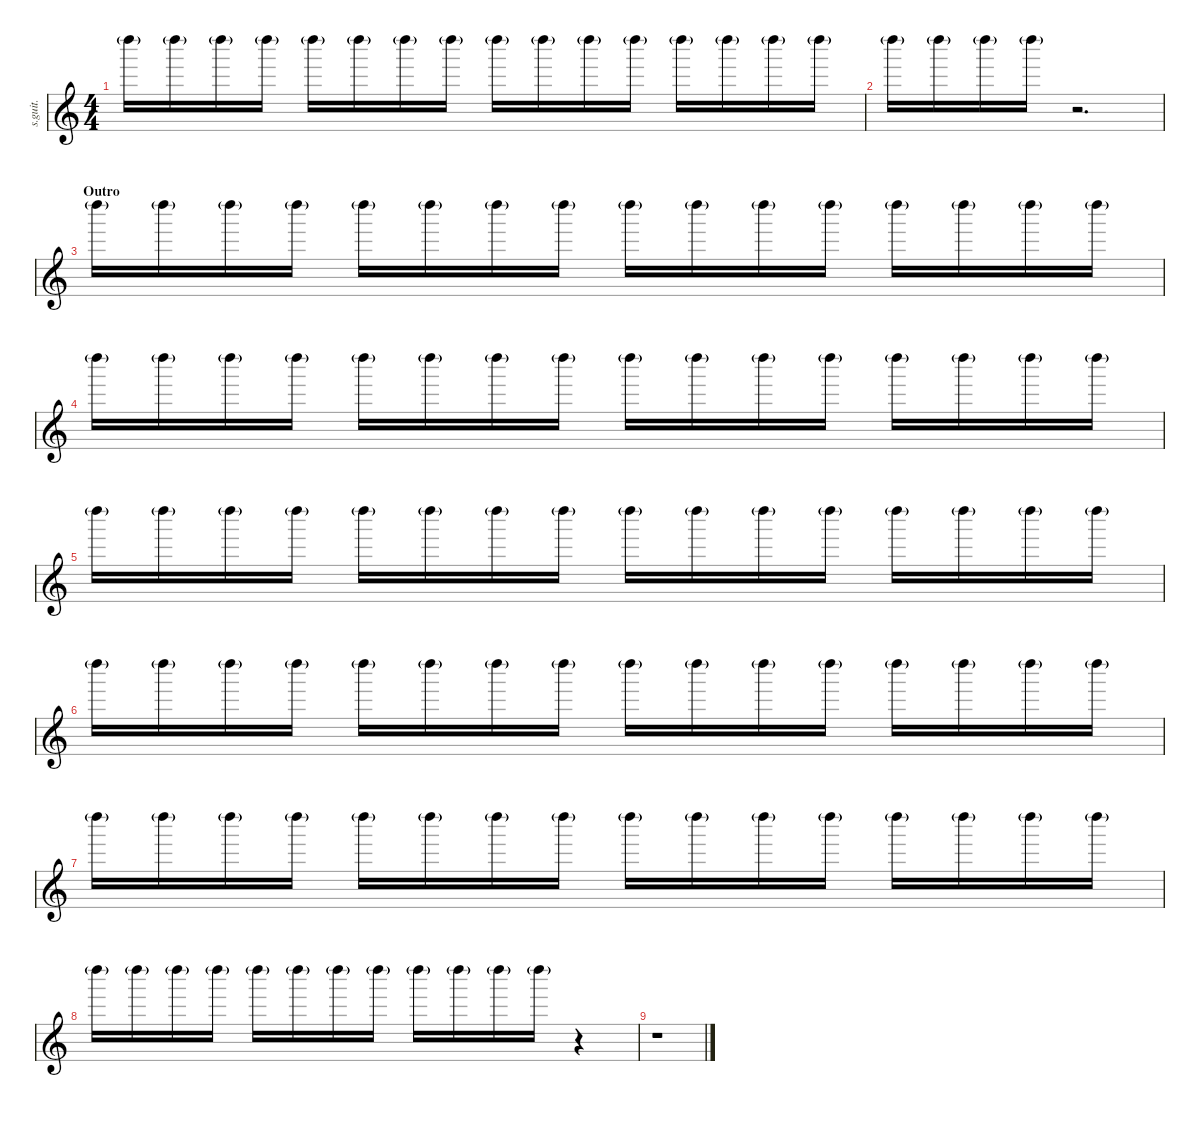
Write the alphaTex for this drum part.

\defaultSystemsLayout 4
\hideDynamics
\bracketExtendMode nobrackets
\track ("Shaker" "s.guit.") {instrument percussion}
\staff {score}
\articulation defaults
\ts (4 4)
\tempo (90 hide)
\clef g2
\ks c "Left Maraca (hit)"{g}.16{lyrics (0 "") lyrics (1 "") lyrics (2 "") lyrics (3 "") lyrics (4 "") dy mp} "Left Maraca (hit)"{g}.16{lyrics (0 "") lyrics (1 "") lyrics (2 "") lyrics (3 "") lyrics (4 "") dy p} "Left Maraca (hit)"{g}.16{lyrics (0 "") lyrics (1 "") lyrics (2 "") lyrics (3 "") lyrics (4 "")} "Left Maraca (hit)"{g}.16{lyrics (0 "") lyrics (1 "") lyrics (2 "") lyrics (3 "") lyrics (4 "")} "Left Maraca (hit)"{g}.16{lyrics (0 "") lyrics (1 "") lyrics (2 "") lyrics (3 "") lyrics (4 "") dy mp} "Left Maraca (hit)"{g}.16{lyrics (0 "") lyrics (1 "") lyrics (2 "") lyrics (3 "") lyrics (4 "") dy p} "Left Maraca (hit)"{g}.16{lyrics (0 "") lyrics (1 "") lyrics (2 "") lyrics (3 "") lyrics (4 "")} "Left Maraca (hit)"{g}.16{lyrics (0 "") lyrics (1 "") lyrics (2 "") lyrics (3 "") lyrics (4 "")} "Left Maraca (hit)"{g}.16{lyrics (0 "") lyrics (1 "") lyrics (2 "") lyrics (3 "") lyrics (4 "") dy mp} "Left Maraca (hit)"{g}.16{lyrics (0 "") lyrics (1 "") lyrics (2 "") lyrics (3 "") lyrics (4 "") dy p} "Left Maraca (hit)"{g}.16{lyrics (0 "") lyrics (1 "") lyrics (2 "") lyrics (3 "") lyrics (4 "")} "Left Maraca (hit)"{g}.16{lyrics (0 "") lyrics (1 "") lyrics (2 "") lyrics (3 "") lyrics (4 "")} "Left Maraca (hit)"{g}.16{lyrics (0 "") lyrics (1 "") lyrics (2 "") lyrics (3 "") lyrics (4 "") dy mp} "Left Maraca (hit)"{g}.16{lyrics (0 "") lyrics (1 "") lyrics (2 "") lyrics (3 "") lyrics (4 "") dy p} "Left Maraca (hit)"{g}.16{lyrics (0 "") lyrics (1 "") lyrics (2 "") lyrics (3 "") lyrics (4 "")} "Left Maraca (hit)"{g}.16{lyrics (0 "") lyrics (1 "") lyrics (2 "") lyrics (3 "") lyrics (4 "")}
|
\tempo (86 hide)
"Left Maraca (hit)"{g}.16{lyrics (0 "") lyrics (1 "") lyrics (2 "") lyrics (3 "") lyrics (4 "") dy mp} "Left Maraca (hit)"{g}.16{lyrics (0 "") lyrics (1 "") lyrics (2 "") lyrics (3 "") lyrics (4 "") dy p} "Left Maraca (hit)"{g}.16{lyrics (0 "") lyrics (1 "") lyrics (2 "") lyrics (3 "") lyrics (4 "")} "Left Maraca (hit)"{g}.16{lyrics (0 "") lyrics (1 "") lyrics (2 "") lyrics (3 "") lyrics (4 "")} r.2{d} |
\section ("" "Outro")
"Left Maraca (hit)"{g}.16{lyrics (0 "") lyrics (1 "") lyrics (2 "") lyrics (3 "") lyrics (4 "") dy mp} "Left Maraca (hit)"{g}.16{lyrics (0 "") lyrics (1 "") lyrics (2 "") lyrics (3 "") lyrics (4 "") dy p} "Left Maraca (hit)"{g}.16{lyrics (0 "") lyrics (1 "") lyrics (2 "") lyrics (3 "") lyrics (4 "")} "Left Maraca (hit)"{g}.16{lyrics (0 "") lyrics (1 "") lyrics (2 "") lyrics (3 "") lyrics (4 "")} "Left Maraca (hit)"{g}.16{lyrics (0 "") lyrics (1 "") lyrics (2 "") lyrics (3 "") lyrics (4 "") dy mp} "Left Maraca (hit)"{g}.16{lyrics (0 "") lyrics (1 "") lyrics (2 "") lyrics (3 "") lyrics (4 "") dy p} "Left Maraca (hit)"{g}.16{lyrics (0 "") lyrics (1 "") lyrics (2 "") lyrics (3 "") lyrics (4 "")} "Left Maraca (hit)"{g}.16{lyrics (0 "") lyrics (1 "") lyrics (2 "") lyrics (3 "") lyrics (4 "")} "Left Maraca (hit)"{g}.16{lyrics (0 "") lyrics (1 "") lyrics (2 "") lyrics (3 "") lyrics (4 "") dy mp} "Left Maraca (hit)"{g}.16{lyrics (0 "") lyrics (1 "") lyrics (2 "") lyrics (3 "") lyrics (4 "") dy p} "Left Maraca (hit)"{g}.16{lyrics (0 "") lyrics (1 "") lyrics (2 "") lyrics (3 "") lyrics (4 "")} "Left Maraca (hit)"{g}.16{lyrics (0 "") lyrics (1 "") lyrics (2 "") lyrics (3 "") lyrics (4 "")} "Left Maraca (hit)"{g}.16{lyrics (0 "") lyrics (1 "") lyrics (2 "") lyrics (3 "") lyrics (4 "") dy mp} "Left Maraca (hit)"{g}.16{lyrics (0 "") lyrics (1 "") lyrics (2 "") lyrics (3 "") lyrics (4 "") dy p} "Left Maraca (hit)"{g}.16{lyrics (0 "") lyrics (1 "") lyrics (2 "") lyrics (3 "") lyrics (4 "")} "Left Maraca (hit)"{g}.16{lyrics (0 "") lyrics (1 "") lyrics (2 "") lyrics (3 "") lyrics (4 "")} |
\tempo (88 hide)
"Left Maraca (hit)"{g}.16{lyrics (0 "") lyrics (1 "") lyrics (2 "") lyrics (3 "") lyrics (4 "") dy mp} "Left Maraca (hit)"{g}.16{lyrics (0 "") lyrics (1 "") lyrics (2 "") lyrics (3 "") lyrics (4 "") dy p} "Left Maraca (hit)"{g}.16{lyrics (0 "") lyrics (1 "") lyrics (2 "") lyrics (3 "") lyrics (4 "")} "Left Maraca (hit)"{g}.16{lyrics (0 "") lyrics (1 "") lyrics (2 "") lyrics (3 "") lyrics (4 "")} "Left Maraca (hit)"{g}.16{lyrics (0 "") lyrics (1 "") lyrics (2 "") lyrics (3 "") lyrics (4 "") dy mp} "Left Maraca (hit)"{g}.16{lyrics (0 "") lyrics (1 "") lyrics (2 "") lyrics (3 "") lyrics (4 "") dy p} "Left Maraca (hit)"{g}.16{lyrics (0 "") lyrics (1 "") lyrics (2 "") lyrics (3 "") lyrics (4 "")} "Left Maraca (hit)"{g}.16{lyrics (0 "") lyrics (1 "") lyrics (2 "") lyrics (3 "") lyrics (4 "")} "Left Maraca (hit)"{g}.16{lyrics (0 "") lyrics (1 "") lyrics (2 "") lyrics (3 "") lyrics (4 "") dy mp} "Left Maraca (hit)"{g}.16{lyrics (0 "") lyrics (1 "") lyrics (2 "") lyrics (3 "") lyrics (4 "") dy p} "Left Maraca (hit)"{g}.16{lyrics (0 "") lyrics (1 "") lyrics (2 "") lyrics (3 "") lyrics (4 "")} "Left Maraca (hit)"{g}.16{lyrics (0 "") lyrics (1 "") lyrics (2 "") lyrics (3 "") lyrics (4 "")} "Left Maraca (hit)"{g}.16{lyrics (0 "") lyrics (1 "") lyrics (2 "") lyrics (3 "") lyrics (4 "") dy mp} "Left Maraca (hit)"{g}.16{lyrics (0 "") lyrics (1 "") lyrics (2 "") lyrics (3 "") lyrics (4 "") dy p} "Left Maraca (hit)"{g}.16{lyrics (0 "") lyrics (1 "") lyrics (2 "") lyrics (3 "") lyrics (4 "")} "Left Maraca (hit)"{g}.16{lyrics (0 "") lyrics (1 "") lyrics (2 "") lyrics (3 "") lyrics (4 "")} |
\tempo (89 hide)
"Left Maraca (hit)"{g}.16{lyrics (0 "") lyrics (1 "") lyrics (2 "") lyrics (3 "") lyrics (4 "") dy mp} "Left Maraca (hit)"{g}.16{lyrics (0 "") lyrics (1 "") lyrics (2 "") lyrics (3 "") lyrics (4 "") dy p} "Left Maraca (hit)"{g}.16{lyrics (0 "") lyrics (1 "") lyrics (2 "") lyrics (3 "") lyrics (4 "")} "Left Maraca (hit)"{g}.16{lyrics (0 "") lyrics (1 "") lyrics (2 "") lyrics (3 "") lyrics (4 "")} "Left Maraca (hit)"{g}.16{lyrics (0 "") lyrics (1 "") lyrics (2 "") lyrics (3 "") lyrics (4 "") dy mp} "Left Maraca (hit)"{g}.16{lyrics (0 "") lyrics (1 "") lyrics (2 "") lyrics (3 "") lyrics (4 "") dy p} "Left Maraca (hit)"{g}.16{lyrics (0 "") lyrics (1 "") lyrics (2 "") lyrics (3 "") lyrics (4 "")} "Left Maraca (hit)"{g}.16{lyrics (0 "") lyrics (1 "") lyrics (2 "") lyrics (3 "") lyrics (4 "")} "Left Maraca (hit)"{g}.16{lyrics (0 "") lyrics (1 "") lyrics (2 "") lyrics (3 "") lyrics (4 "") dy mp} "Left Maraca (hit)"{g}.16{lyrics (0 "") lyrics (1 "") lyrics (2 "") lyrics (3 "") lyrics (4 "") dy p} "Left Maraca (hit)"{g}.16{lyrics (0 "") lyrics (1 "") lyrics (2 "") lyrics (3 "") lyrics (4 "")} "Left Maraca (hit)"{g}.16{lyrics (0 "") lyrics (1 "") lyrics (2 "") lyrics (3 "") lyrics (4 "")} "Left Maraca (hit)"{g}.16{lyrics (0 "") lyrics (1 "") lyrics (2 "") lyrics (3 "") lyrics (4 "") dy mp} "Left Maraca (hit)"{g}.16{lyrics (0 "") lyrics (1 "") lyrics (2 "") lyrics (3 "") lyrics (4 "") dy p} "Left Maraca (hit)"{g}.16{lyrics (0 "") lyrics (1 "") lyrics (2 "") lyrics (3 "") lyrics (4 "")} "Left Maraca (hit)"{g}.16{lyrics (0 "") lyrics (1 "") lyrics (2 "") lyrics (3 "") lyrics (4 "")} |
\tempo (86 hide)
"Left Maraca (hit)"{g}.16{lyrics (0 "") lyrics (1 "") lyrics (2 "") lyrics (3 "") lyrics (4 "") dy mp} "Left Maraca (hit)"{g}.16{lyrics (0 "") lyrics (1 "") lyrics (2 "") lyrics (3 "") lyrics (4 "") dy p} "Left Maraca (hit)"{g}.16{lyrics (0 "") lyrics (1 "") lyrics (2 "") lyrics (3 "") lyrics (4 "")} "Left Maraca (hit)"{g}.16{lyrics (0 "") lyrics (1 "") lyrics (2 "") lyrics (3 "") lyrics (4 "")} "Left Maraca (hit)"{g}.16{lyrics (0 "") lyrics (1 "") lyrics (2 "") lyrics (3 "") lyrics (4 "") dy mp} "Left Maraca (hit)"{g}.16{lyrics (0 "") lyrics (1 "") lyrics (2 "") lyrics (3 "") lyrics (4 "") dy p} "Left Maraca (hit)"{g}.16{lyrics (0 "") lyrics (1 "") lyrics (2 "") lyrics (3 "") lyrics (4 "")} "Left Maraca (hit)"{g}.16{lyrics (0 "") lyrics (1 "") lyrics (2 "") lyrics (3 "") lyrics (4 "")} "Left Maraca (hit)"{g}.16{lyrics (0 "") lyrics (1 "") lyrics (2 "") lyrics (3 "") lyrics (4 "") dy mp} "Left Maraca (hit)"{g}.16{lyrics (0 "") lyrics (1 "") lyrics (2 "") lyrics (3 "") lyrics (4 "") dy p} "Left Maraca (hit)"{g}.16{lyrics (0 "") lyrics (1 "") lyrics (2 "") lyrics (3 "") lyrics (4 "")} "Left Maraca (hit)"{g}.16{lyrics (0 "") lyrics (1 "") lyrics (2 "") lyrics (3 "") lyrics (4 "")} "Left Maraca (hit)"{g}.16{lyrics (0 "") lyrics (1 "") lyrics (2 "") lyrics (3 "") lyrics (4 "") dy mp} "Left Maraca (hit)"{g}.16{lyrics (0 "") lyrics (1 "") lyrics (2 "") lyrics (3 "") lyrics (4 "") dy p} "Left Maraca (hit)"{g}.16{lyrics (0 "") lyrics (1 "") lyrics (2 "") lyrics (3 "") lyrics (4 "")} "Left Maraca (hit)"{g}.16{lyrics (0 "") lyrics (1 "") lyrics (2 "") lyrics (3 "") lyrics (4 "")} |
\tempo (87 hide)
"Left Maraca (hit)"{g}.16{lyrics (0 "") lyrics (1 "") lyrics (2 "") lyrics (3 "") lyrics (4 "") dy mp} "Left Maraca (hit)"{g}.16{lyrics (0 "") lyrics (1 "") lyrics (2 "") lyrics (3 "") lyrics (4 "") dy p} "Left Maraca (hit)"{g}.16{lyrics (0 "") lyrics (1 "") lyrics (2 "") lyrics (3 "") lyrics (4 "")} "Left Maraca (hit)"{g}.16{lyrics (0 "") lyrics (1 "") lyrics (2 "") lyrics (3 "") lyrics (4 "")} "Left Maraca (hit)"{g}.16{lyrics (0 "") lyrics (1 "") lyrics (2 "") lyrics (3 "") lyrics (4 "") dy mp} "Left Maraca (hit)"{g}.16{lyrics (0 "") lyrics (1 "") lyrics (2 "") lyrics (3 "") lyrics (4 "") dy p} "Left Maraca (hit)"{g}.16{lyrics (0 "") lyrics (1 "") lyrics (2 "") lyrics (3 "") lyrics (4 "")} "Left Maraca (hit)"{g}.16{lyrics (0 "") lyrics (1 "") lyrics (2 "") lyrics (3 "") lyrics (4 "")} "Left Maraca (hit)"{g}.16{lyrics (0 "") lyrics (1 "") lyrics (2 "") lyrics (3 "") lyrics (4 "") dy mp} "Left Maraca (hit)"{g}.16{lyrics (0 "") lyrics (1 "") lyrics (2 "") lyrics (3 "") lyrics (4 "") dy p} "Left Maraca (hit)"{g}.16{lyrics (0 "") lyrics (1 "") lyrics (2 "") lyrics (3 "") lyrics (4 "")} "Left Maraca (hit)"{g}.16{lyrics (0 "") lyrics (1 "") lyrics (2 "") lyrics (3 "") lyrics (4 "")} "Left Maraca (hit)"{g}.16{lyrics (0 "") lyrics (1 "") lyrics (2 "") lyrics (3 "") lyrics (4 "") dy mp} "Left Maraca (hit)"{g}.16{lyrics (0 "") lyrics (1 "") lyrics (2 "") lyrics (3 "") lyrics (4 "") dy p} "Left Maraca (hit)"{g}.16{lyrics (0 "") lyrics (1 "") lyrics (2 "") lyrics (3 "") lyrics (4 "")} "Left Maraca (hit)"{g}.16{lyrics (0 "") lyrics (1 "") lyrics (2 "") lyrics (3 "") lyrics (4 "")} |
\tempo (90 hide)
"Left Maraca (hit)"{g}.16{lyrics (0 "") lyrics (1 "") lyrics (2 "") lyrics (3 "") lyrics (4 "") dy mp} "Left Maraca (hit)"{g}.16{lyrics (0 "") lyrics (1 "") lyrics (2 "") lyrics (3 "") lyrics (4 "") dy p} "Left Maraca (hit)"{g}.16{lyrics (0 "") lyrics (1 "") lyrics (2 "") lyrics (3 "") lyrics (4 "")} "Left Maraca (hit)"{g}.16{lyrics (0 "") lyrics (1 "") lyrics (2 "") lyrics (3 "") lyrics (4 "")} "Left Maraca (hit)"{g}.16{lyrics (0 "") lyrics (1 "") lyrics (2 "") lyrics (3 "") lyrics (4 "") dy mp} "Left Maraca (hit)"{g}.16{lyrics (0 "") lyrics (1 "") lyrics (2 "") lyrics (3 "") lyrics (4 "") dy p} "Left Maraca (hit)"{g}.16{lyrics (0 "") lyrics (1 "") lyrics (2 "") lyrics (3 "") lyrics (4 "")} "Left Maraca (hit)"{g}.16{lyrics (0 "") lyrics (1 "") lyrics (2 "") lyrics (3 "") lyrics (4 "")} "Left Maraca (hit)"{g}.16{lyrics (0 "") lyrics (1 "") lyrics (2 "") lyrics (3 "") lyrics (4 "") dy mp} "Left Maraca (hit)"{g}.16{lyrics (0 "") lyrics (1 "") lyrics (2 "") lyrics (3 "") lyrics (4 "") dy p} "Left Maraca (hit)"{g}.16{lyrics (0 "") lyrics (1 "") lyrics (2 "") lyrics (3 "") lyrics (4 "")} "Left Maraca (hit)"{g}.16{lyrics (0 "") lyrics (1 "") lyrics (2 "") lyrics (3 "") lyrics (4 "")} r.4 |
r.1
